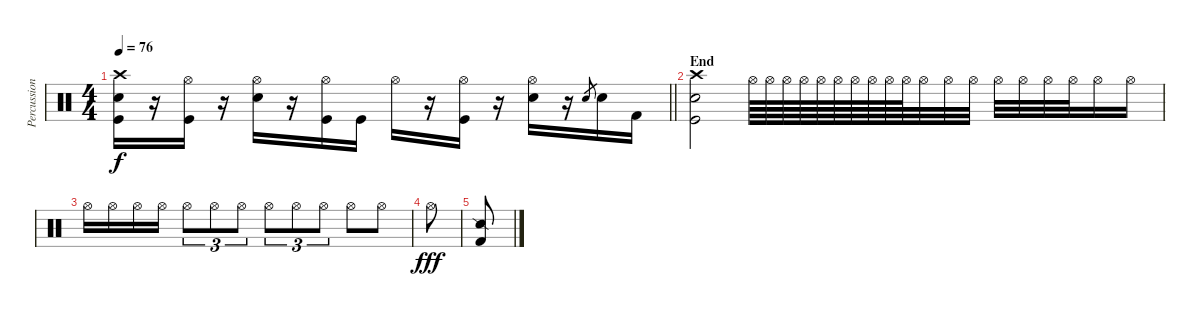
\track ("Percussion" "Percussion") {instrument percussion}
\staff {score}
\articulation defaults
\ts (4 4)
\tempo 76
\clef neutral
\barLineRight lightlight
\ks c
("Crash high (hit)" "Electric Snare (hit)" "Kick (hit)").16{dy f} r.16 ("Hi-Hat (open)" "Kick (hit)").16 r.16 ("Hi-Hat (open)" "Electric Snare (hit)").16 r.16 ("Hi-Hat (open)" "Kick (hit)").16 "Kick (hit)".16 "Hi-Hat (open)".16 r.16 ("Hi-Hat (open)" "Kick (hit)").16 r.16 ("Hi-Hat (open)" "Electric Snare (hit)").16 r.16 "Electric Snare (hit)".8{gr} "Electric Snare (hit)".16 "Kick (hit) 2".16 |
\section ("" "End")
("Crash high (hit)" "Electric Snare (hit)" "Kick (hit)").2 "Hi-Hat (open)".64 "Hi-Hat (open)".64 "Hi-Hat (open)".64 "Hi-Hat (open)".64 "Hi-Hat (open)".64 "Hi-Hat (open)".64 "Hi-Hat (open)".64 "Hi-Hat (open)".64 "Hi-Hat (open)".64 "Hi-Hat (open)".64 "Hi-Hat (open)".32 "Hi-Hat (open)".32 "Hi-Hat (open)".32 "Hi-Hat (open)".32 "Hi-Hat (open)".32 "Hi-Hat (open)".32 "Hi-Hat (open)".32 "Hi-Hat (open)".16 "Hi-Hat (open)".16 |
"Hi-Hat (open)".16 "Hi-Hat (open)".16 "Hi-Hat (open)".16 "Hi-Hat (open)".16 "Hi-Hat (open)".8{tu (3 2)} "Hi-Hat (open)".8{tu (3 2)} "Hi-Hat (open)".8{tu (3 2)} "Hi-Hat (open)".8{tu (3 2)} "Hi-Hat (open)".8{tu (3 2)} "Hi-Hat (open)".8{tu (3 2)} "Hi-Hat (open)".8 "Hi-Hat (open)".8 |
"Hi-Hat (open)".8{dy fff} |
("Snare (side stick) 2" "Kick (hit) 2").8
